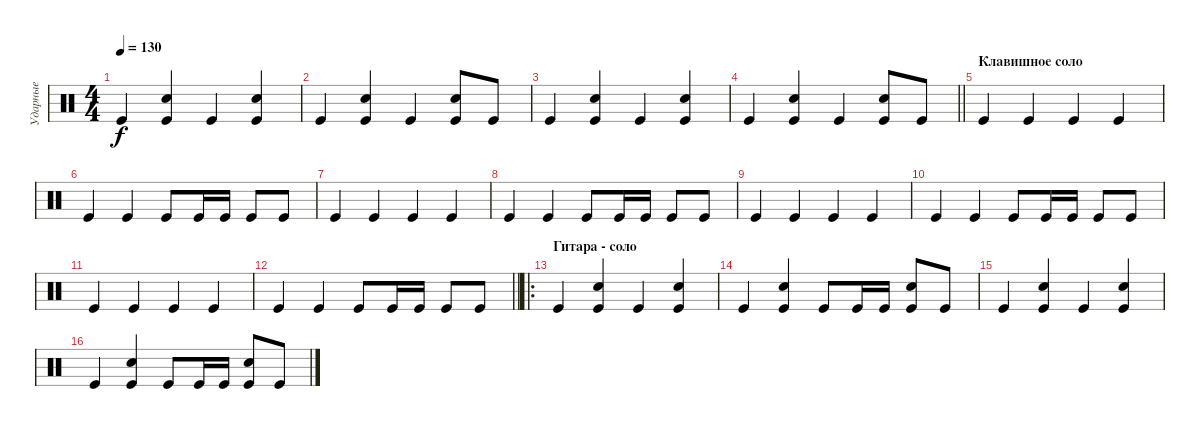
\track ("Ударные" "Ударные") {instrument percussion}
\staff {score}
\articulation defaults
\ts (4 4)
\tempo 130
\clef neutral
\ks c "Kick (hit)".4{dy f}
("Kick (hit)" "Snare (hit) 2").4 "Kick (hit)".4 ("Kick (hit)" "Snare (hit) 2").4 |
"Kick (hit)".4 ("Snare (hit) 2" "Kick (hit)").4 "Kick (hit)".4 ("Snare (hit) 2" "Kick (hit)").8 "Kick (hit)".8 |
"Kick (hit)".4 ("Snare (hit) 2" "Kick (hit)").4 "Kick (hit)".4 ("Snare (hit) 2" "Kick (hit)").4 |
\barLineRight lightlight "Kick (hit)".4
("Snare (hit) 2" "Kick (hit)").4 "Kick (hit)".4 ("Snare (hit) 2" "Kick (hit)").8 "Kick (hit)".8 |
\section ("" "Клавишное соло")
"Kick (hit)".4 "Kick (hit)".4 "Kick (hit)".4 "Kick (hit)".4 |
"Kick (hit)".4 "Kick (hit)".4 "Kick (hit)".8 "Kick (hit)".16 "Kick (hit)".16 "Kick (hit)".8 "Kick (hit)".8 |
"Kick (hit)".4 "Kick (hit)".4 "Kick (hit)".4 "Kick (hit)".4 |
"Kick (hit)".4 "Kick (hit)".4 "Kick (hit)".8 "Kick (hit)".16 "Kick (hit)".16 "Kick (hit)".8 "Kick (hit)".8 |
"Kick (hit)".4 "Kick (hit)".4 "Kick (hit)".4 "Kick (hit)".4 |
"Kick (hit)".4 "Kick (hit)".4 "Kick (hit)".8 "Kick (hit)".16 "Kick (hit)".16 "Kick (hit)".8 "Kick (hit)".8 |
"Kick (hit)".4 "Kick (hit)".4 "Kick (hit)".4 "Kick (hit)".4 |
\barLineRight lightlight "Kick (hit)".4 "Kick (hit)".4 "Kick (hit)".8 "Kick (hit)".16 "Kick (hit)".16 "Kick (hit)".8 "Kick (hit)".8
|
\ro
\section ("" "Гитара - соло")
"Kick (hit)".4 ("Kick (hit)" "Snare (hit) 2").4 "Kick (hit)".4 ("Kick (hit)" "Snare (hit) 2").4 |
"Kick (hit)".4 ("Kick (hit)" "Snare (hit) 2").4 "Kick (hit)".8 "Kick (hit)".16 "Kick (hit)".16 ("Kick (hit)" "Snare (hit) 2").8 "Kick (hit)".8 |
"Kick (hit)".4 ("Kick (hit)" "Snare (hit) 2").4 "Kick (hit)".4 ("Kick (hit)" "Snare (hit) 2").4 |
"Kick (hit)".4 ("Kick (hit)" "Snare (hit) 2").4 "Kick (hit)".8 "Kick (hit)".16 "Kick (hit)".16 ("Kick (hit)" "Snare (hit) 2").8 "Kick (hit)".8
